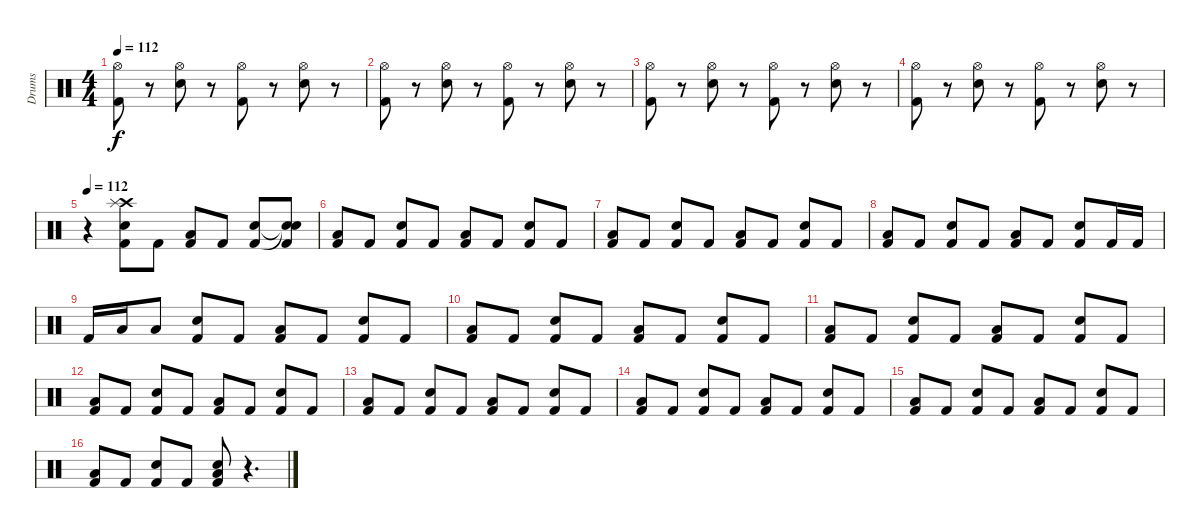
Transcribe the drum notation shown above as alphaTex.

\track ("Drums" "Drums") {instrument percussion}
\staff {score}
\articulation defaults
\ts (4 4)
\tempo 112
\clef neutral
\ks c
("Hi-Hat (open)" "Kick (hit) 2").8{dy f} r.8 ("Hi-Hat (open)" "Snare (hit) 2").8 r.8 ("Hi-Hat (open)" "Kick (hit) 2").8 r.8 ("Hi-Hat (open)" "Snare (hit) 2").8 r.8 |
("Hi-Hat (open)" "Kick (hit) 2").8 r.8 ("Hi-Hat (open)" "Snare (hit) 2").8 r.8 ("Hi-Hat (open)" "Kick (hit) 2").8 r.8 ("Hi-Hat (open)" "Snare (hit) 2").8 r.8 |
("Hi-Hat (open)" "Kick (hit) 2").8 r.8 ("Hi-Hat (open)" "Snare (hit) 2").8 r.8 ("Hi-Hat (open)" "Kick (hit) 2").8 r.8 ("Hi-Hat (open)" "Snare (hit) 2").8 r.8 |
("Hi-Hat (open)" "Kick (hit) 2").8 r.8 ("Hi-Hat (open)" "Snare (hit) 2").8 r.8 ("Hi-Hat (open)" "Kick (hit) 2").8 r.8 ("Hi-Hat (open)" "Snare (hit) 2").8 r.8 |
\tempo 112
r.4 ("Crash high (hit)" "Splash (hit)" "Snare (hit) 2" "Kick (hit) 2").8 "Kick (hit) 2".8 ("Low Floor Tom (hit)" "Kick (hit) 2").8 "Kick (hit) 2".8 ("Snare (hit) 2" "Kick (hit) 2").8 ("Snare (hit)"{t} "Snare (hit)"{t} "Kick (hit) 2").8 |
("Low Floor Tom (hit)" "Kick (hit) 2").8 "Kick (hit) 2".8 ("Snare (hit) 2" "Kick (hit) 2").8 "Kick (hit) 2".8 ("Low Floor Tom (hit)" "Kick (hit) 2").8 "Kick (hit) 2".8 ("Snare (hit) 2" "Kick (hit) 2").8 "Kick (hit) 2".8 |
("Low Floor Tom (hit)" "Kick (hit) 2").8 "Kick (hit) 2".8 ("Snare (hit) 2" "Kick (hit) 2").8 "Kick (hit) 2".8 ("Low Floor Tom (hit)" "Kick (hit) 2").8 "Kick (hit) 2".8 ("Snare (hit) 2" "Kick (hit) 2").8 "Kick (hit) 2".8 |
("Low Floor Tom (hit)" "Kick (hit) 2").8 "Kick (hit) 2".8 ("Snare (hit) 2" "Kick (hit) 2").8 "Kick (hit) 2".8 ("Low Floor Tom (hit)" "Kick (hit) 2").8 "Kick (hit) 2".8 ("Snare (hit) 2" "Kick (hit) 2").8 "Kick (hit) 2".16 "Kick (hit) 2".16 |
"Kick (hit) 2".16 "Low Floor Tom (hit)".16 "Low Floor Tom (hit)".8 ("Snare (hit) 2" "Kick (hit) 2").8 "Kick (hit) 2".8 ("Low Floor Tom (hit)" "Kick (hit) 2").8 "Kick (hit) 2".8 ("Snare (hit) 2" "Kick (hit) 2").8 "Kick (hit) 2".8 |
("Low Floor Tom (hit)" "Kick (hit) 2").8 "Kick (hit) 2".8 ("Snare (hit) 2" "Kick (hit) 2").8 "Kick (hit) 2".8 ("Low Floor Tom (hit)" "Kick (hit) 2").8 "Kick (hit) 2".8 ("Snare (hit) 2" "Kick (hit) 2").8 "Kick (hit) 2".8 |
("Low Floor Tom (hit)" "Kick (hit) 2").8 "Kick (hit) 2".8 ("Snare (hit) 2" "Kick (hit) 2").8 "Kick (hit) 2".8 ("Low Floor Tom (hit)" "Kick (hit) 2").8 "Kick (hit) 2".8 ("Snare (hit) 2" "Kick (hit) 2").8 "Kick (hit) 2".8 |
("Low Floor Tom (hit)" "Kick (hit) 2").8 "Kick (hit) 2".8 ("Snare (hit) 2" "Kick (hit) 2").8 "Kick (hit) 2".8 ("Low Floor Tom (hit)" "Kick (hit) 2").8 "Kick (hit) 2".8 ("Snare (hit) 2" "Kick (hit) 2").8 "Kick (hit) 2".8 |
("Low Floor Tom (hit)" "Kick (hit) 2").8 "Kick (hit) 2".8 ("Snare (hit) 2" "Kick (hit) 2").8 "Kick (hit) 2".8 ("Low Floor Tom (hit)" "Kick (hit) 2").8 "Kick (hit) 2".8 ("Snare (hit) 2" "Kick (hit) 2").8 "Kick (hit) 2".8 |
("Low Floor Tom (hit)" "Kick (hit) 2").8 "Kick (hit) 2".8 ("Snare (hit) 2" "Kick (hit) 2").8 "Kick (hit) 2".8 ("Low Floor Tom (hit)" "Kick (hit) 2").8 "Kick (hit) 2".8 ("Snare (hit) 2" "Kick (hit) 2").8 "Kick (hit) 2".8 |
("Low Floor Tom (hit)" "Kick (hit) 2").8 "Kick (hit) 2".8 ("Snare (hit) 2" "Kick (hit) 2").8 "Kick (hit) 2".8 ("Low Floor Tom (hit)" "Kick (hit) 2").8 "Kick (hit) 2".8 ("Snare (hit) 2" "Kick (hit) 2").8 "Kick (hit) 2".8 |
("Low Floor Tom (hit)" "Kick (hit) 2").8 "Kick (hit) 2".8 ("Snare (hit) 2" "Kick (hit) 2").8 "Kick (hit) 2".8 ("Snare (hit) 2" "Low Floor Tom (hit)" "Kick (hit) 2").8 r.4{d}
